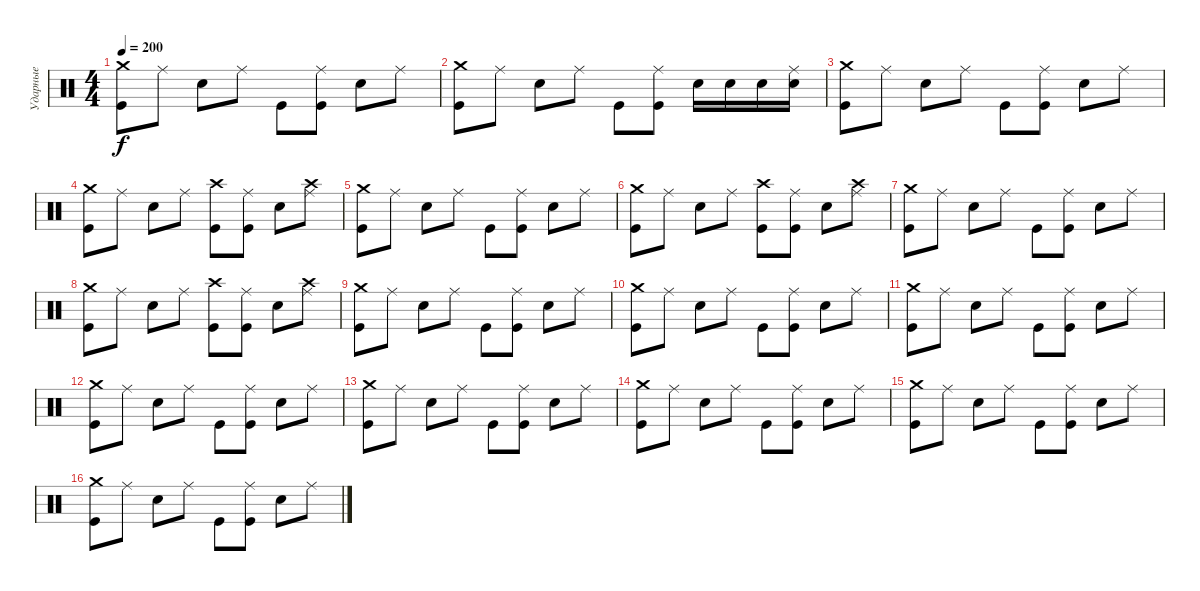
\track ("Ударные" "Ударные") {instrument percussion}
\staff {score}
\articulation defaults
\ts (4 4)
\tempo 200
\clef neutral
\ks c
("Crash medium (hit)" "Kick (hit)").8{dy f} "Ride (middle)".8 "Electric Snare (hit)".8 "Ride (middle)".8 "Kick (hit)".8 ("Ride (middle)" "Kick (hit)").8 "Electric Snare (hit)".8 "Ride (middle)".8 |
("Crash medium (hit)" "Kick (hit)").8 "Ride (middle)".8 "Electric Snare (hit)".8 "Ride (middle)".8 "Kick (hit)".8 ("Ride (middle)" "Kick (hit)").8 "Electric Snare (hit)".16 "Electric Snare (hit)".16 "Electric Snare (hit)".16 ("Ride (middle)" "Electric Snare (hit)").16 |
("Crash medium (hit)" "Kick (hit)").8 "Ride (middle)".8 "Electric Snare (hit)".8 "Ride (middle)".8 "Kick (hit)".8 ("Ride (middle)" "Kick (hit)").8 "Electric Snare (hit)".8 "Ride (middle)".8 |
("Crash medium (hit)" "Kick (hit)").8 "Ride (middle)".8 "Electric Snare (hit)".8 "Ride (middle)".8 ("Crash high (hit)" "Kick (hit)").8 ("Ride (middle)" "Kick (hit)").8 "Electric Snare (hit)".8 ("Crash high (hit)" "Ride (middle)").8 |
("Crash medium (hit)" "Kick (hit)").8 "Ride (middle)".8 "Electric Snare (hit)".8 "Ride (middle)".8 "Kick (hit)".8 ("Ride (middle)" "Kick (hit)").8 "Electric Snare (hit)".8 "Ride (middle)".8 |
("Crash medium (hit)" "Kick (hit)").8 "Ride (middle)".8 "Electric Snare (hit)".8 "Ride (middle)".8 ("Crash high (hit)" "Kick (hit)").8 ("Ride (middle)" "Kick (hit)").8 "Electric Snare (hit)".8 ("Crash high (hit)" "Ride (middle)").8 |
("Crash medium (hit)" "Kick (hit)").8 "Ride (middle)".8 "Electric Snare (hit)".8 "Ride (middle)".8 "Kick (hit)".8 ("Ride (middle)" "Kick (hit)").8 "Electric Snare (hit)".8 "Ride (middle)".8 |
("Crash medium (hit)" "Kick (hit)").8 "Ride (middle)".8 "Electric Snare (hit)".8 "Ride (middle)".8 ("Crash high (hit)" "Kick (hit)").8 ("Ride (middle)" "Kick (hit)").8 "Electric Snare (hit)".8 ("Crash high (hit)" "Ride (middle)").8 |
("Crash medium (hit)" "Kick (hit)").8 "Ride (middle)".8 "Electric Snare (hit)".8 "Ride (middle)".8 "Kick (hit)".8 ("Ride (middle)" "Kick (hit)").8 "Electric Snare (hit)".8 "Ride (middle)".8 |
("Crash medium (hit)" "Kick (hit)").8 "Ride (middle)".8 "Electric Snare (hit)".8 "Ride (middle)".8 "Kick (hit)".8 ("Ride (middle)" "Kick (hit)").8 "Electric Snare (hit)".8 "Ride (middle)".8 |
("Crash medium (hit)" "Kick (hit)").8 "Ride (middle)".8 "Electric Snare (hit)".8 "Ride (middle)".8 "Kick (hit)".8 ("Ride (middle)" "Kick (hit)").8 "Electric Snare (hit)".8 "Ride (middle)".8 |
("Crash medium (hit)" "Kick (hit)").8 "Ride (middle)".8 "Electric Snare (hit)".8 "Ride (middle)".8 "Kick (hit)".8 ("Ride (middle)" "Kick (hit)").8 "Electric Snare (hit)".8 "Ride (middle)".8 |
("Crash medium (hit)" "Kick (hit)").8 "Ride (middle)".8 "Electric Snare (hit)".8 "Ride (middle)".8 "Kick (hit)".8 ("Ride (middle)" "Kick (hit)").8 "Electric Snare (hit)".8 "Ride (middle)".8 |
("Crash medium (hit)" "Kick (hit)").8 "Ride (middle)".8 "Electric Snare (hit)".8 "Ride (middle)".8 "Kick (hit)".8 ("Ride (middle)" "Kick (hit)").8 "Electric Snare (hit)".8 "Ride (middle)".8 |
("Crash medium (hit)" "Kick (hit)").8 "Ride (middle)".8 "Electric Snare (hit)".8 "Ride (middle)".8 "Kick (hit)".8 ("Ride (middle)" "Kick (hit)").8 "Electric Snare (hit)".8 "Ride (middle)".8 |
("Crash medium (hit)" "Kick (hit)").8 "Ride (middle)".8 "Electric Snare (hit)".8 "Ride (middle)".8 "Kick (hit)".8 ("Ride (middle)" "Kick (hit)").8 "Electric Snare (hit)".8 "Ride (middle)".8
